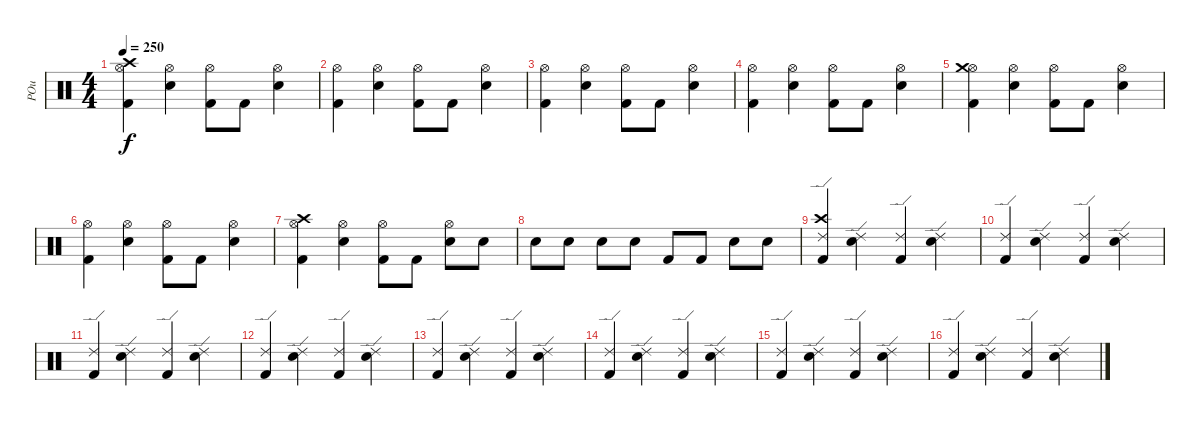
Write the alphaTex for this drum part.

\track ("POu" "POu") {instrument percussion}
\staff {score}
\articulation defaults
\ts (4 4)
\tempo 250
\clef neutral
\ks c
("Kick (hit) 2" "Hi-Hat (open)" "Crash high (hit)").4{dy f} ("Electric Snare (hit)" "Hi-Hat (open)").4 ("Kick (hit) 2" "Hi-Hat (open)").8 "Kick (hit) 2".8 ("Electric Snare (hit)" "Hi-Hat (open)").4 |
("Kick (hit) 2" "Hi-Hat (open)").4 ("Electric Snare (hit)" "Hi-Hat (open)").4 ("Kick (hit) 2" "Hi-Hat (open)").8 "Kick (hit) 2".8 ("Electric Snare (hit)" "Hi-Hat (open)").4 |
("Kick (hit) 2" "Hi-Hat (open)").4 ("Electric Snare (hit)" "Hi-Hat (open)").4 ("Kick (hit) 2" "Hi-Hat (open)").8 "Kick (hit) 2".8 ("Electric Snare (hit)" "Hi-Hat (open)").4 |
("Kick (hit) 2" "Hi-Hat (open)").4 ("Electric Snare (hit)" "Hi-Hat (open)").4 ("Kick (hit) 2" "Hi-Hat (open)").8 "Kick (hit) 2".8 ("Electric Snare (hit)" "Hi-Hat (open)").4 |
("Kick (hit) 2" "Hi-Hat (open)" "Crash medium (hit)").4 ("Electric Snare (hit)" "Hi-Hat (open)").4 ("Kick (hit) 2" "Hi-Hat (open)").8 "Kick (hit) 2".8 ("Electric Snare (hit)" "Hi-Hat (open)").4 |
("Kick (hit) 2" "Hi-Hat (open)").4 ("Electric Snare (hit)" "Hi-Hat (open)").4 ("Kick (hit) 2" "Hi-Hat (open)").8 "Kick (hit) 2".8 ("Electric Snare (hit)" "Hi-Hat (open)").4 |
("Kick (hit) 2" "Hi-Hat (open)" "Crash high (hit)").4 ("Electric Snare (hit)" "Hi-Hat (open)").4 ("Kick (hit) 2" "Hi-Hat (open)").8 "Kick (hit) 2".8 ("Electric Snare (hit)" "Hi-Hat (open)").8 "Electric Snare (hit)".8 |
"Electric Snare (hit)".8 "Electric Snare (hit)".8 "Electric Snare (hit)".8 "Electric Snare (hit)".8 "Kick (hit) 2".8 "Kick (hit) 2".8 "Electric Snare (hit)".8 "Electric Snare (hit)".8 |
("Kick (hit) 2" "Ride (edge) 2" "Crash high (hit)").4 ("Electric Snare (hit)" "Ride (edge) 2").4 ("Kick (hit) 2" "Ride (edge) 2").4 ("Electric Snare (hit)" "Ride (edge) 2").4 |
("Kick (hit) 2" "Ride (edge) 2").4 ("Electric Snare (hit)" "Ride (edge) 2").4 ("Kick (hit) 2" "Ride (edge) 2").4 ("Electric Snare (hit)" "Ride (edge) 2").4 |
("Kick (hit) 2" "Ride (edge) 2").4 ("Electric Snare (hit)" "Ride (edge) 2").4 ("Kick (hit) 2" "Ride (edge) 2").4 ("Electric Snare (hit)" "Ride (edge) 2").4 |
("Kick (hit) 2" "Ride (edge) 2").4 ("Electric Snare (hit)" "Ride (edge) 2").4 ("Kick (hit) 2" "Ride (edge) 2").4 ("Electric Snare (hit)" "Ride (edge) 2").4 |
("Kick (hit) 2" "Ride (edge) 2").4 ("Electric Snare (hit)" "Ride (edge) 2").4 ("Kick (hit) 2" "Ride (edge) 2").4 ("Electric Snare (hit)" "Ride (edge) 2").4 |
("Kick (hit) 2" "Ride (edge) 2").4 ("Electric Snare (hit)" "Ride (edge) 2").4 ("Kick (hit) 2" "Ride (edge) 2").4 ("Electric Snare (hit)" "Ride (edge) 2").4 |
("Kick (hit) 2" "Ride (edge) 2").4 ("Electric Snare (hit)" "Ride (edge) 2").4 ("Kick (hit) 2" "Ride (edge) 2").4 ("Electric Snare (hit)" "Ride (edge) 2").4 |
("Kick (hit) 2" "Ride (edge) 2").4 ("Electric Snare (hit)" "Ride (edge) 2").4 ("Kick (hit) 2" "Ride (edge) 2").4 ("Electric Snare (hit)" "Ride (edge) 2").4
